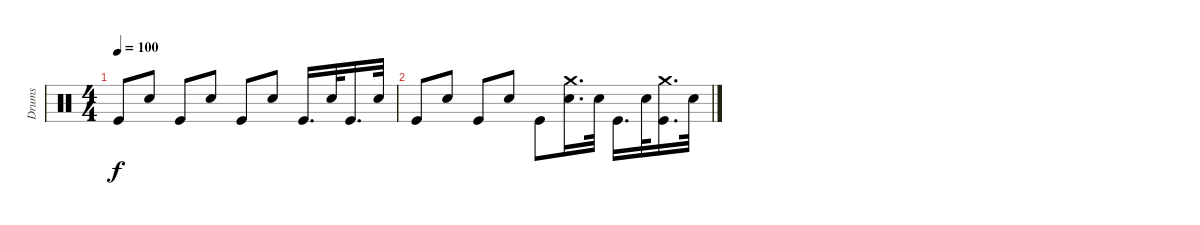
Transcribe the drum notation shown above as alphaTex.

\track ("Drums" "Drums") {instrument percussion}
\staff {score}
\articulation defaults
\ts (4 4)
\tempo 100
\clef neutral
\ks c "Kick (hit)".8{dy f} "Electric Snare (hit)".8 "Kick (hit)".8 "Electric Snare (hit)".8 "Kick (hit)".8 "Electric Snare (hit)".8 "Kick (hit)".16{d} "Electric Snare (hit)".32 "Kick (hit)".16{d} "Electric Snare (hit)".32
|
"Kick (hit)".8 "Electric Snare (hit)".8 "Kick (hit)".8 "Electric Snare (hit)".8 "Kick (hit)".8 ("Crash medium (hit)" "Electric Snare (hit)").16{d} "Electric Snare (hit)".32 "Kick (hit)".16{d} "Electric Snare (hit)".32 ("Crash medium (hit)" "Kick (hit)").16{d} "Electric Snare (hit)".32
